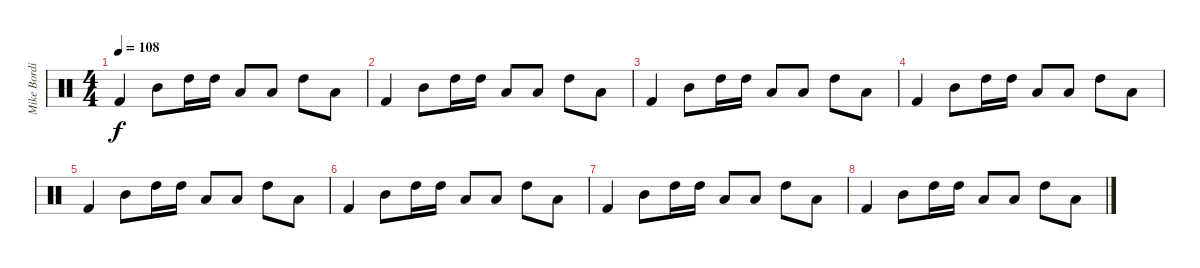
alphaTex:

\track ("Mike Bordin" "Mike Bordi") {instrument percussion}
\staff {score}
\articulation defaults
\ts (4 4)
\tempo 108
\clef neutral
\ks c "Kick (hit) 2".4{dy f} "Mid Tom (hit)".8 "High Tom (hit)".16 "High Tom (hit)".16 "Low Tom (hit)".8 "Low Tom (hit)".8 "High Tom (hit)".8 "Low Tom (hit)".8
|
"Kick (hit) 2".4 "Mid Tom (hit)".8 "High Tom (hit)".16 "High Tom (hit)".16 "Low Tom (hit)".8 "Low Tom (hit)".8 "High Tom (hit)".8 "Low Tom (hit)".8 |
"Kick (hit) 2".4 "Mid Tom (hit)".8 "High Tom (hit)".16 "High Tom (hit)".16 "Low Tom (hit)".8 "Low Tom (hit)".8 "High Tom (hit)".8 "Low Tom (hit)".8 |
"Kick (hit) 2".4 "Mid Tom (hit)".8 "High Tom (hit)".16 "High Tom (hit)".16 "Low Tom (hit)".8 "Low Tom (hit)".8 "High Tom (hit)".8 "Low Tom (hit)".8 |
"Kick (hit) 2".4 "Mid Tom (hit)".8 "High Tom (hit)".16 "High Tom (hit)".16 "Low Tom (hit)".8 "Low Tom (hit)".8 "High Tom (hit)".8 "Low Tom (hit)".8 |
"Kick (hit) 2".4 "Mid Tom (hit)".8 "High Tom (hit)".16 "High Tom (hit)".16 "Low Tom (hit)".8 "Low Tom (hit)".8 "High Tom (hit)".8 "Low Tom (hit)".8 |
"Kick (hit) 2".4 "Mid Tom (hit)".8 "High Tom (hit)".16 "High Tom (hit)".16 "Low Tom (hit)".8 "Low Tom (hit)".8 "High Tom (hit)".8 "Low Tom (hit)".8 |
"Kick (hit) 2".4 "Mid Tom (hit)".8 "High Tom (hit)".16 "High Tom (hit)".16 "Low Tom (hit)".8 "Low Tom (hit)".8 "High Tom (hit)".8 "Low Tom (hit)".8
